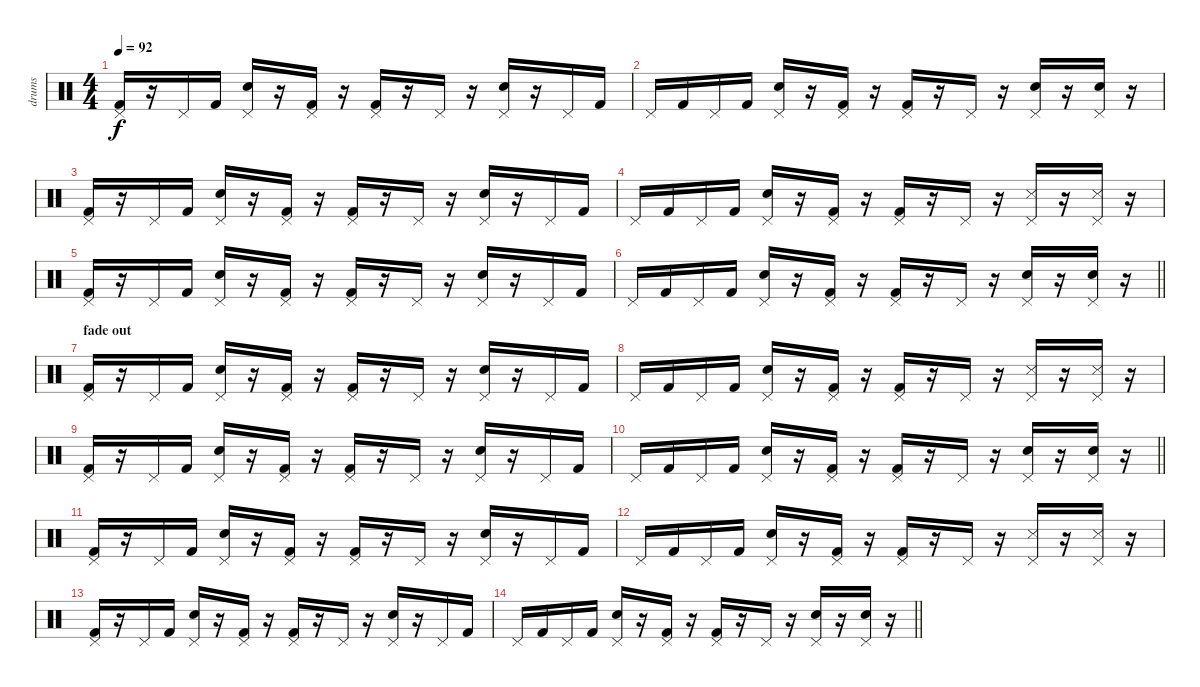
\track ("drums" "drums") {instrument percussion}
\staff {score}
\articulation defaults
\ts (4 4)
\tempo 92
\clef neutral
\ks c
("Kick (hit) 2" "Pedal Hi-Hat (hit)").16{dy f} r.16 "Pedal Hi-Hat (hit)".16 "Kick (hit) 2".16 ("Electric Snare (hit)" "Pedal Hi-Hat (hit)").16 r.16 ("Kick (hit) 2" "Pedal Hi-Hat (hit)").16 r.16 ("Kick (hit) 2" "Pedal Hi-Hat (hit)").16 r.16 "Pedal Hi-Hat (hit)".16 r.16 ("Electric Snare (hit)" "Pedal Hi-Hat (hit)").16 r.16 "Pedal Hi-Hat (hit)".16 "Kick (hit) 2".16 |
"Pedal Hi-Hat (hit)".16 "Kick (hit) 2".16 "Pedal Hi-Hat (hit)".16 "Kick (hit) 2".16 ("Electric Snare (hit)" "Pedal Hi-Hat (hit)").16 r.16 ("Kick (hit) 2" "Pedal Hi-Hat (hit)").16 r.16 ("Kick (hit) 2" "Pedal Hi-Hat (hit)").16 r.16 "Pedal Hi-Hat (hit)".16 r.16 ("Electric Snare (hit)" "Pedal Hi-Hat (hit)").16 r.16 ("Electric Snare (hit)" "Pedal Hi-Hat (hit)").16 r.16 |
("Kick (hit) 2" "Pedal Hi-Hat (hit)").16 r.16 "Pedal Hi-Hat (hit)".16 "Kick (hit) 2".16 ("Electric Snare (hit)" "Pedal Hi-Hat (hit)").16 r.16 ("Kick (hit) 2" "Pedal Hi-Hat (hit)").16 r.16 ("Kick (hit) 2" "Pedal Hi-Hat (hit)").16 r.16 "Pedal Hi-Hat (hit)".16 r.16 ("Electric Snare (hit)" "Pedal Hi-Hat (hit)").16 r.16 "Pedal Hi-Hat (hit)".16 "Kick (hit) 2".16 |
"Pedal Hi-Hat (hit)".16 "Kick (hit) 2".16 "Pedal Hi-Hat (hit)".16 "Kick (hit) 2".16 ("Electric Snare (hit)" "Pedal Hi-Hat (hit)").16 r.16 ("Kick (hit) 2" "Pedal Hi-Hat (hit)").16 r.16 ("Kick (hit) 2" "Pedal Hi-Hat (hit)").16 r.16 "Pedal Hi-Hat (hit)".16 r.16 ("Snare (side stick) 3" "Pedal Hi-Hat (hit)").16 r.16 ("Snare (side stick) 3" "Pedal Hi-Hat (hit)").16 r.16 |
("Kick (hit) 2" "Pedal Hi-Hat (hit)").16 r.16 "Pedal Hi-Hat (hit)".16 "Kick (hit) 2".16 ("Electric Snare (hit)" "Pedal Hi-Hat (hit)").16 r.16 ("Kick (hit) 2" "Pedal Hi-Hat (hit)").16 r.16 ("Kick (hit) 2" "Pedal Hi-Hat (hit)").16 r.16 "Pedal Hi-Hat (hit)".16 r.16 ("Electric Snare (hit)" "Pedal Hi-Hat (hit)").16 r.16 "Pedal Hi-Hat (hit)".16 "Kick (hit) 2".16 |
\barLineRight lightlight "Pedal Hi-Hat (hit)".16 "Kick (hit) 2".16 "Pedal Hi-Hat (hit)".16 "Kick (hit) 2".16
("Electric Snare (hit)" "Pedal Hi-Hat (hit)").16 r.16 ("Kick (hit) 2" "Pedal Hi-Hat (hit)").16 r.16 ("Kick (hit) 2" "Pedal Hi-Hat (hit)").16 r.16 "Pedal Hi-Hat (hit)".16 r.16 ("Electric Snare (hit)" "Pedal Hi-Hat (hit)").16 r.16 ("Electric Snare (hit)" "Pedal Hi-Hat (hit)").16 r.16 |
\section ("" "fade out")
("Kick (hit) 2" "Pedal Hi-Hat (hit)").16{volume 0} r.16 "Pedal Hi-Hat (hit)".16 "Kick (hit) 2".16 ("Electric Snare (hit)" "Pedal Hi-Hat (hit)").16 r.16 ("Kick (hit) 2" "Pedal Hi-Hat (hit)").16 r.16 ("Kick (hit) 2" "Pedal Hi-Hat (hit)").16 r.16 "Pedal Hi-Hat (hit)".16 r.16 ("Electric Snare (hit)" "Pedal Hi-Hat (hit)").16 r.16 "Pedal Hi-Hat (hit)".16 "Kick (hit) 2".16 |
"Pedal Hi-Hat (hit)".16 "Kick (hit) 2".16 "Pedal Hi-Hat (hit)".16 "Kick (hit) 2".16 ("Electric Snare (hit)" "Pedal Hi-Hat (hit)").16 r.16 ("Kick (hit) 2" "Pedal Hi-Hat (hit)").16 r.16 ("Kick (hit) 2" "Pedal Hi-Hat (hit)").16 r.16 "Pedal Hi-Hat (hit)".16 r.16 ("Snare (side stick) 3" "Pedal Hi-Hat (hit)").16 r.16 ("Snare (side stick) 3" "Pedal Hi-Hat (hit)").16 r.16 |
("Kick (hit) 2" "Pedal Hi-Hat (hit)").16 r.16 "Pedal Hi-Hat (hit)".16 "Kick (hit) 2".16 ("Electric Snare (hit)" "Pedal Hi-Hat (hit)").16 r.16 ("Kick (hit) 2" "Pedal Hi-Hat (hit)").16 r.16 ("Kick (hit) 2" "Pedal Hi-Hat (hit)").16 r.16 "Pedal Hi-Hat (hit)".16 r.16 ("Electric Snare (hit)" "Pedal Hi-Hat (hit)").16 r.16 "Pedal Hi-Hat (hit)".16 "Kick (hit) 2".16 |
\barLineRight lightlight "Pedal Hi-Hat (hit)".16 "Kick (hit) 2".16 "Pedal Hi-Hat (hit)".16 "Kick (hit) 2".16
("Electric Snare (hit)" "Pedal Hi-Hat (hit)").16 r.16 ("Kick (hit) 2" "Pedal Hi-Hat (hit)").16 r.16 ("Kick (hit) 2" "Pedal Hi-Hat (hit)").16 r.16 "Pedal Hi-Hat (hit)".16 r.16 ("Electric Snare (hit)" "Pedal Hi-Hat (hit)").16 r.16 ("Electric Snare (hit)" "Pedal Hi-Hat (hit)").16 r.16 |
("Kick (hit) 2" "Pedal Hi-Hat (hit)").16 r.16 "Pedal Hi-Hat (hit)".16 "Kick (hit) 2".16 ("Electric Snare (hit)" "Pedal Hi-Hat (hit)").16 r.16 ("Kick (hit) 2" "Pedal Hi-Hat (hit)").16 r.16 ("Kick (hit) 2" "Pedal Hi-Hat (hit)").16 r.16 "Pedal Hi-Hat (hit)".16 r.16 ("Electric Snare (hit)" "Pedal Hi-Hat (hit)").16 r.16 "Pedal Hi-Hat (hit)".16 "Kick (hit) 2".16 |
"Pedal Hi-Hat (hit)".16 "Kick (hit) 2".16 "Pedal Hi-Hat (hit)".16 "Kick (hit) 2".16 ("Electric Snare (hit)" "Pedal Hi-Hat (hit)").16 r.16 ("Kick (hit) 2" "Pedal Hi-Hat (hit)").16 r.16 ("Kick (hit) 2" "Pedal Hi-Hat (hit)").16 r.16 "Pedal Hi-Hat (hit)".16 r.16 ("Snare (side stick) 3" "Pedal Hi-Hat (hit)").16 r.16 ("Snare (side stick) 3" "Pedal Hi-Hat (hit)").16 r.16 |
("Kick (hit) 2" "Pedal Hi-Hat (hit)").16 r.16 "Pedal Hi-Hat (hit)".16 "Kick (hit) 2".16 ("Electric Snare (hit)" "Pedal Hi-Hat (hit)").16 r.16 ("Kick (hit) 2" "Pedal Hi-Hat (hit)").16 r.16 ("Kick (hit) 2" "Pedal Hi-Hat (hit)").16 r.16 "Pedal Hi-Hat (hit)".16 r.16 ("Electric Snare (hit)" "Pedal Hi-Hat (hit)").16 r.16 "Pedal Hi-Hat (hit)".16 "Kick (hit) 2".16 |
\barLineRight lightlight "Pedal Hi-Hat (hit)".16 "Kick (hit) 2".16 "Pedal Hi-Hat (hit)".16 "Kick (hit) 2".16
("Electric Snare (hit)" "Pedal Hi-Hat (hit)").16 r.16 ("Kick (hit) 2" "Pedal Hi-Hat (hit)").16 r.16 ("Kick (hit) 2" "Pedal Hi-Hat (hit)").16 r.16 "Pedal Hi-Hat (hit)".16 r.16 ("Electric Snare (hit)" "Pedal Hi-Hat (hit)").16 r.16 ("Electric Snare (hit)" "Pedal Hi-Hat (hit)").16 r.16
